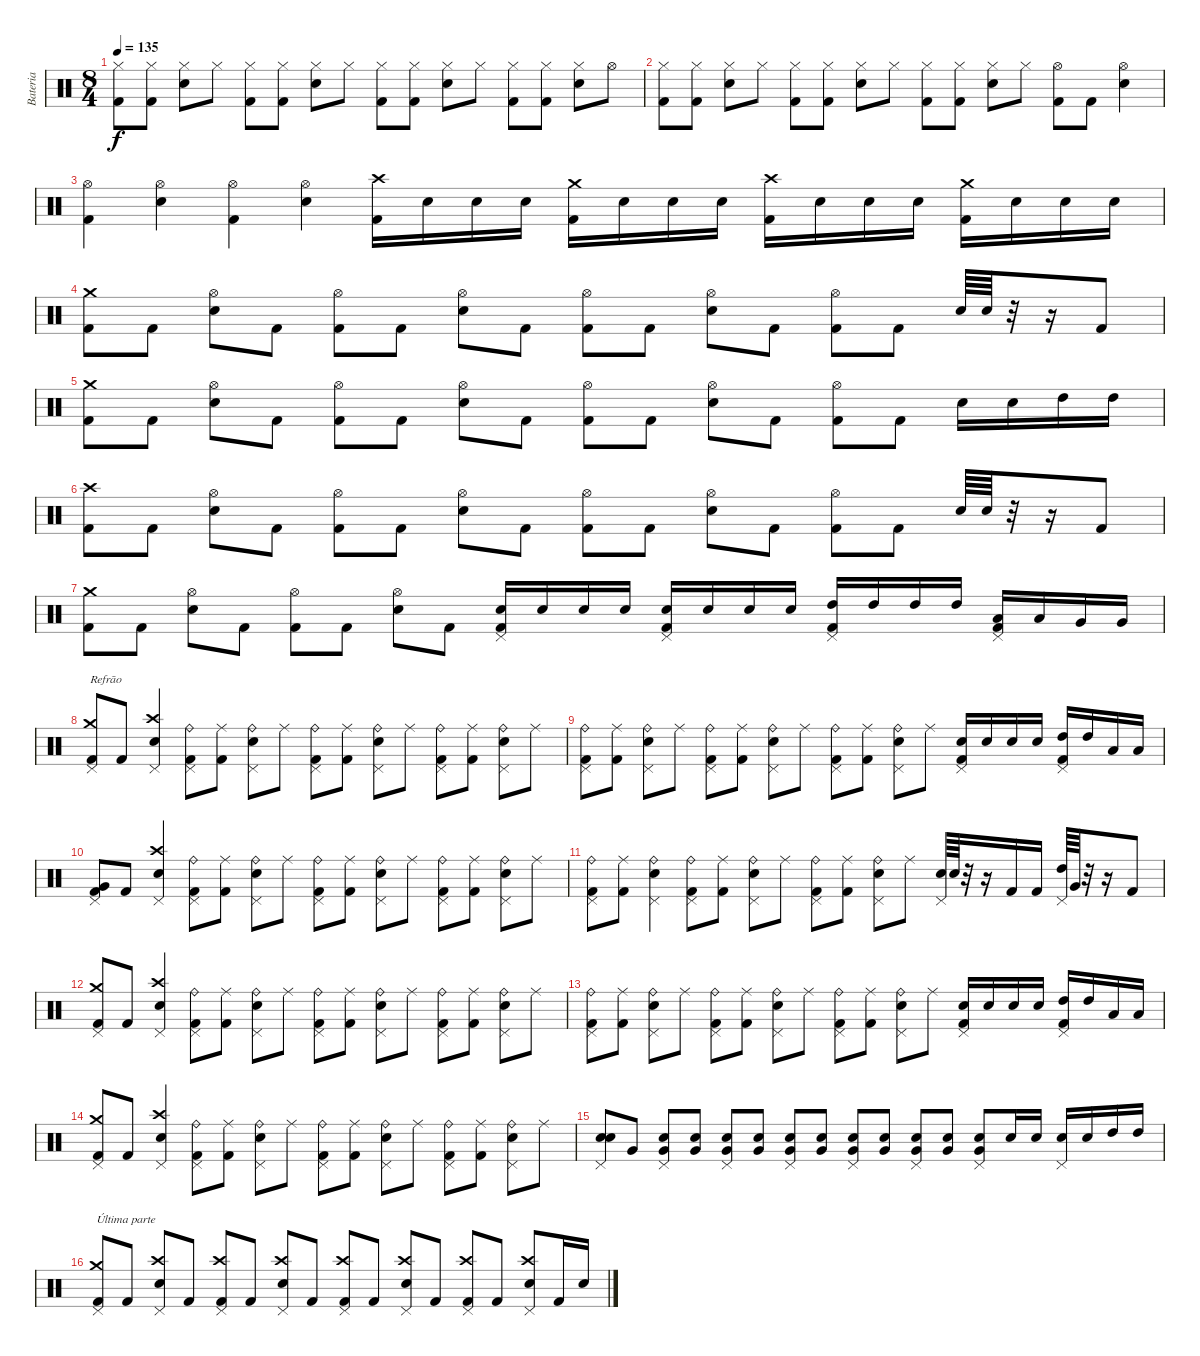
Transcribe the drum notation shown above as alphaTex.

\track ("Bateria" "Bateria") {instrument percussion}
\staff {score}
\articulation defaults
\ts (8 4)
\tempo 135
\clef neutral
\ks c
("Kick (hit) 2" "Hi-Hat (closed)").8{dy f} ("Kick (hit) 2" "Hi-Hat (closed)").8 ("Electric Snare (hit)" "Hi-Hat (closed)").8 "Hi-Hat (closed)".8 ("Kick (hit) 2" "Hi-Hat (closed)").8 ("Kick (hit) 2" "Hi-Hat (closed)").8 ("Electric Snare (hit)" "Hi-Hat (closed)").8 "Hi-Hat (closed)".8 ("Kick (hit) 2" "Hi-Hat (closed)").8 ("Kick (hit) 2" "Hi-Hat (closed)").8 ("Electric Snare (hit)" "Hi-Hat (closed)").8 "Hi-Hat (closed)".8 ("Kick (hit) 2" "Hi-Hat (closed)").8 ("Kick (hit) 2" "Hi-Hat (closed)").8 ("Electric Snare (hit)" "Hi-Hat (closed)").8 "Hi-Hat (open)".8 |
("Kick (hit) 2" "Hi-Hat (closed)").8 ("Kick (hit) 2" "Hi-Hat (closed)").8 ("Electric Snare (hit)" "Hi-Hat (closed)").8 "Hi-Hat (closed)".8 ("Kick (hit) 2" "Hi-Hat (closed)").8 ("Kick (hit) 2" "Hi-Hat (closed)").8 ("Electric Snare (hit)" "Hi-Hat (closed)").8 "Hi-Hat (closed)".8 ("Kick (hit) 2" "Hi-Hat (closed)").8 ("Kick (hit) 2" "Hi-Hat (closed)").8 ("Electric Snare (hit)" "Hi-Hat (closed)").8 "Hi-Hat (closed)".8 ("Kick (hit) 2" "Hi-Hat (open)").8 "Kick (hit) 2".8 ("Electric Snare (hit)" "Hi-Hat (open)").4 |
("Kick (hit) 2" "Hi-Hat (open)").4 ("Electric Snare (hit)" "Hi-Hat (open)").4 ("Kick (hit) 2" "Hi-Hat (open)").4 ("Electric Snare (hit)" "Hi-Hat (open)").4 ("Kick (hit) 2" "Crash high (hit)").16 "Electric Snare (hit)".16 "Electric Snare (hit)".16 "Electric Snare (hit)".16 ("Kick (hit) 2" "Crash medium (hit)").16 "Electric Snare (hit)".16 "Electric Snare (hit)".16 "Electric Snare (hit)".16 ("Kick (hit) 2" "Crash high (hit)").16 "Electric Snare (hit)".16 "Electric Snare (hit)".16 "Electric Snare (hit)".16 ("Kick (hit) 2" "Crash medium (hit)").16 "Electric Snare (hit)".16 "Electric Snare (hit)".16 "Electric Snare (hit)".16 |
("Kick (hit) 2" "Crash medium (hit)").8 "Kick (hit) 2".8 ("Electric Snare (hit)" "Hi-Hat (open)").8 "Kick (hit) 2".8 ("Kick (hit) 2" "Hi-Hat (open)").8 "Kick (hit) 2".8 ("Electric Snare (hit)" "Hi-Hat (open)").8 "Kick (hit) 2".8 ("Kick (hit) 2" "Hi-Hat (open)").8 "Kick (hit) 2".8 ("Electric Snare (hit)" "Hi-Hat (open)").8 "Kick (hit) 2".8 ("Kick (hit) 2" "Hi-Hat (open)").8 "Kick (hit) 2".8 "Electric Snare (hit)".64 "Electric Snare (hit)".64 r.32 r.16 "Kick (hit) 2".8 |
("Kick (hit) 2" "Crash medium (hit)").8 "Kick (hit) 2".8 ("Electric Snare (hit)" "Hi-Hat (open)").8 "Kick (hit) 2".8 ("Kick (hit) 2" "Hi-Hat (open)").8 "Kick (hit) 2".8 ("Electric Snare (hit)" "Hi-Hat (open)").8 "Kick (hit) 2".8 ("Kick (hit) 2" "Hi-Hat (open)").8 "Kick (hit) 2".8 ("Electric Snare (hit)" "Hi-Hat (open)").8 "Kick (hit) 2".8 ("Kick (hit) 2" "Hi-Hat (open)").8 "Kick (hit) 2".8 "Electric Snare (hit)".16 "Electric Snare (hit)".16 "High Tom (hit)".16 "High Tom (hit)".16 |
("Kick (hit) 2" "Crash high (hit)").8 "Kick (hit) 2".8 ("Electric Snare (hit)" "Hi-Hat (open)").8 "Kick (hit) 2".8 ("Kick (hit) 2" "Hi-Hat (open)").8 "Kick (hit) 2".8 ("Electric Snare (hit)" "Hi-Hat (open)").8 "Kick (hit) 2".8 ("Kick (hit) 2" "Hi-Hat (open)").8 "Kick (hit) 2".8 ("Electric Snare (hit)" "Hi-Hat (open)").8 "Kick (hit) 2".8 ("Kick (hit) 2" "Hi-Hat (open)").8 "Kick (hit) 2".8 "Electric Snare (hit)".64 "Electric Snare (hit)".64 r.32 r.16 "Kick (hit) 2".8 |
("Kick (hit) 2" "Crash medium (hit)").8 "Kick (hit) 2".8 ("Electric Snare (hit)" "Hi-Hat (open)").8 "Kick (hit) 2".8 ("Kick (hit) 2" "Hi-Hat (open)").8 "Kick (hit) 2".8 ("Electric Snare (hit)" "Hi-Hat (open)").8 "Kick (hit) 2".8 ("Kick (hit) 2" "Electric Snare (hit)" "Pedal Hi-Hat (hit)").16 "Electric Snare (hit)".16 "Electric Snare (hit)".16 "Electric Snare (hit)".16 ("Kick (hit) 2" "Electric Snare (hit)" "Pedal Hi-Hat (hit)").16 "Electric Snare (hit)".16 "Electric Snare (hit)".16 "Electric Snare (hit)".16 ("Kick (hit) 2" "High Tom (hit)" "Pedal Hi-Hat (hit)").16 "High Tom (hit)".16 "High Tom (hit)".16 "High Tom (hit)".16 ("Kick (hit) 2" "Low Tom (hit)" "Pedal Hi-Hat (hit)").16 "Low Tom (hit)".16 "Very Low Tom (hit)".16 "Very Low Tom (hit)".16 |
("Kick (hit) 2" "Crash medium (hit)" "Pedal Hi-Hat (hit)").8{txt "Refrão"} "Kick (hit) 2".8 ("Electric Snare (hit)" "Crash high (hit)" "Pedal Hi-Hat (hit)").4 ("Kick (hit) 2" "Ride (bell)" "Pedal Hi-Hat (hit)").8 ("Kick (hit) 2" "Ride (middle)").8 ("Electric Snare (hit)" "Ride (bell)" "Pedal Hi-Hat (hit)").8 "Ride (middle)".8 ("Kick (hit) 2" "Ride (bell)" "Pedal Hi-Hat (hit)").8 ("Kick (hit) 2" "Ride (middle)").8 ("Electric Snare (hit)" "Ride (bell)" "Pedal Hi-Hat (hit)").8 "Ride (middle)".8 ("Kick (hit) 2" "Ride (bell)" "Pedal Hi-Hat (hit)").8 ("Kick (hit) 2" "Ride (middle)").8 ("Electric Snare (hit)" "Ride (bell)" "Pedal Hi-Hat (hit)").8 "Ride (middle)".8 |
("Kick (hit) 2" "Ride (bell)" "Pedal Hi-Hat (hit)").8 ("Kick (hit) 2" "Ride (middle)").8 ("Electric Snare (hit)" "Ride (bell)" "Pedal Hi-Hat (hit)").8 "Ride (middle)".8 ("Kick (hit) 2" "Ride (bell)" "Pedal Hi-Hat (hit)").8 ("Kick (hit) 2" "Ride (middle)").8 ("Electric Snare (hit)" "Ride (bell)" "Pedal Hi-Hat (hit)").8 "Ride (middle)".8 ("Kick (hit) 2" "Ride (bell)" "Pedal Hi-Hat (hit)").8 ("Kick (hit) 2" "Ride (middle)").8 ("Electric Snare (hit)" "Ride (bell)" "Pedal Hi-Hat (hit)").8 "Ride (middle)".8 ("Kick (hit) 2" "Electric Snare (hit)" "Pedal Hi-Hat (hit)").16 "Electric Snare (hit)".16 "Electric Snare (hit)".16 "Electric Snare (hit)".16 ("Kick (hit) 2" "High Tom (hit)" "Pedal Hi-Hat (hit)").16 "High Tom (hit)".16 "Low Tom (hit)".16 "Low Tom (hit)".16 |
("Kick (hit) 2" "Very Low Tom (hit)" "Pedal Hi-Hat (hit)").8 "Kick (hit) 2".8 ("Electric Snare (hit)" "Crash high (hit)" "Pedal Hi-Hat (hit)").4 ("Kick (hit) 2" "Ride (bell)" "Pedal Hi-Hat (hit)").8 ("Kick (hit) 2" "Ride (middle)").8 ("Electric Snare (hit)" "Ride (bell)" "Pedal Hi-Hat (hit)").8 "Ride (middle)".8 ("Kick (hit) 2" "Ride (bell)" "Pedal Hi-Hat (hit)").8 ("Kick (hit) 2" "Ride (middle)").8 ("Electric Snare (hit)" "Ride (bell)" "Pedal Hi-Hat (hit)").8 "Ride (middle)".8 ("Kick (hit) 2" "Ride (bell)" "Pedal Hi-Hat (hit)").8 ("Kick (hit) 2" "Ride (middle)").8 ("Electric Snare (hit)" "Ride (bell)" "Pedal Hi-Hat (hit)").8 "Ride (middle)".8 |
("Kick (hit) 2" "Ride (bell)" "Pedal Hi-Hat (hit)").8 ("Kick (hit) 2" "Ride (middle)").8 ("Electric Snare (hit)" "Ride (bell)" "Pedal Hi-Hat (hit)").4 ("Kick (hit) 2" "Ride (bell)" "Pedal Hi-Hat (hit)").8 ("Kick (hit) 2" "Ride (middle)").8 ("Electric Snare (hit)" "Ride (bell)" "Pedal Hi-Hat (hit)").8 "Ride (middle)".8 ("Kick (hit) 2" "Ride (bell)" "Pedal Hi-Hat (hit)").8 ("Kick (hit) 2" "Ride (middle)").8 ("Electric Snare (hit)" "Ride (bell)" "Pedal Hi-Hat (hit)").8 "Ride (middle)".8 ("Electric Snare (hit)" "Pedal Hi-Hat (hit)").64 "Electric Snare (hit)".64 r.32 r.16 "Kick (hit) 2".16 "Kick (hit) 2".16 ("High Tom (hit)" "Pedal Hi-Hat (hit)").64 "Very Low Tom (hit)".64 r.32 r.16 "Kick (hit) 2".8 |
("Kick (hit) 2" "Crash medium (hit)" "Pedal Hi-Hat (hit)").8 "Kick (hit) 2".8 ("Electric Snare (hit)" "Crash high (hit)" "Pedal Hi-Hat (hit)").4 ("Kick (hit) 2" "Ride (bell)" "Pedal Hi-Hat (hit)").8 ("Kick (hit) 2" "Ride (middle)").8 ("Electric Snare (hit)" "Ride (bell)" "Pedal Hi-Hat (hit)").8 "Ride (middle)".8 ("Kick (hit) 2" "Ride (bell)" "Pedal Hi-Hat (hit)").8 ("Kick (hit) 2" "Ride (middle)").8 ("Electric Snare (hit)" "Ride (bell)" "Pedal Hi-Hat (hit)").8 "Ride (middle)".8 ("Kick (hit) 2" "Ride (bell)" "Pedal Hi-Hat (hit)").8 ("Kick (hit) 2" "Ride (middle)").8 ("Electric Snare (hit)" "Ride (bell)" "Pedal Hi-Hat (hit)").8 "Ride (middle)".8 |
("Kick (hit) 2" "Ride (bell)" "Pedal Hi-Hat (hit)").8 ("Kick (hit) 2" "Ride (middle)").8 ("Electric Snare (hit)" "Ride (bell)" "Pedal Hi-Hat (hit)").8 "Ride (middle)".8 ("Kick (hit) 2" "Ride (bell)" "Pedal Hi-Hat (hit)").8 ("Kick (hit) 2" "Ride (middle)").8 ("Electric Snare (hit)" "Ride (bell)" "Pedal Hi-Hat (hit)").8 "Ride (middle)".8 ("Kick (hit) 2" "Ride (bell)" "Pedal Hi-Hat (hit)").8 ("Kick (hit) 2" "Ride (middle)").8 ("Electric Snare (hit)" "Ride (bell)" "Pedal Hi-Hat (hit)").8 "Ride (middle)".8 ("Kick (hit) 2" "Electric Snare (hit)" "Pedal Hi-Hat (hit)").16 "Electric Snare (hit)".16 "Electric Snare (hit)".16 "Electric Snare (hit)".16 ("Kick (hit) 2" "High Tom (hit)" "Pedal Hi-Hat (hit)").16 "High Tom (hit)".16 "Low Tom (hit)".16 "Low Tom (hit)".16 |
("Kick (hit) 2" "Crash medium (hit)" "Pedal Hi-Hat (hit)").8 "Kick (hit) 2".8 ("Electric Snare (hit)" "Crash high (hit)" "Pedal Hi-Hat (hit)").4 ("Kick (hit) 2" "Ride (bell)" "Pedal Hi-Hat (hit)").8 ("Kick (hit) 2" "Ride (middle)").8 ("Electric Snare (hit)" "Ride (bell)" "Pedal Hi-Hat (hit)").8 "Ride (middle)".8 ("Kick (hit) 2" "Ride (bell)" "Pedal Hi-Hat (hit)").8 ("Kick (hit) 2" "Ride (middle)").8 ("Electric Snare (hit)" "Ride (bell)" "Pedal Hi-Hat (hit)").8 "Ride (middle)".8 ("Kick (hit) 2" "Ride (bell)" "Pedal Hi-Hat (hit)").8 ("Kick (hit) 2" "Ride (middle)").8 ("Electric Snare (hit)" "Ride (bell)" "Pedal Hi-Hat (hit)").8 "Ride (middle)".8 |
("Electric Snare (hit)" "Electric Snare (hit)" "Pedal Hi-Hat (hit)").8 "Very Low Tom (hit)".8 ("Very Low Tom (hit)" "Electric Snare (hit)" "Pedal Hi-Hat (hit)").8 ("Very Low Tom (hit)" "Electric Snare (hit)").8 ("Very Low Tom (hit)" "Electric Snare (hit)" "Pedal Hi-Hat (hit)").8 ("Very Low Tom (hit)" "Electric Snare (hit)").8 ("Very Low Tom (hit)" "Electric Snare (hit)" "Pedal Hi-Hat (hit)").8 ("Very Low Tom (hit)" "Electric Snare (hit)").8 ("Very Low Tom (hit)" "Electric Snare (hit)" "Pedal Hi-Hat (hit)").8 ("Very Low Tom (hit)" "Electric Snare (hit)").8 ("Very Low Tom (hit)" "Electric Snare (hit)" "Pedal Hi-Hat (hit)").8 ("Very Low Tom (hit)" "Electric Snare (hit)").8 ("Very Low Tom (hit)" "Electric Snare (hit)" "Pedal Hi-Hat (hit)").8 "Electric Snare (hit)".16 "Electric Snare (hit)".16 ("Electric Snare (hit)" "Pedal Hi-Hat (hit)").16 "Electric Snare (hit)".16 "High Tom (hit)".16 "High Tom (hit)".16 |
("Kick (hit) 2" "Crash medium (hit)" "Pedal Hi-Hat (hit)").8{txt "Última parte"} "Kick (hit) 2".8 ("Electric Snare (hit)" "Crash high (hit)" "Pedal Hi-Hat (hit)").8 "Kick (hit) 2".8 ("Kick (hit) 2" "Crash high (hit)" "Pedal Hi-Hat (hit)").8 "Kick (hit) 2".8 ("Electric Snare (hit)" "Crash high (hit)" "Pedal Hi-Hat (hit)").8 "Kick (hit) 2".8 ("Kick (hit) 2" "Crash high (hit)" "Pedal Hi-Hat (hit)").8 "Kick (hit) 2".8 ("Electric Snare (hit)" "Crash high (hit)" "Pedal Hi-Hat (hit)").8 "Kick (hit) 2".8 ("Kick (hit) 2" "Crash high (hit)" "Pedal Hi-Hat (hit)").8 "Kick (hit) 2".8 ("Electric Snare (hit)" "Crash high (hit)" "Pedal Hi-Hat (hit)").8 "Kick (hit) 2".16 "Electric Snare (hit)".16
